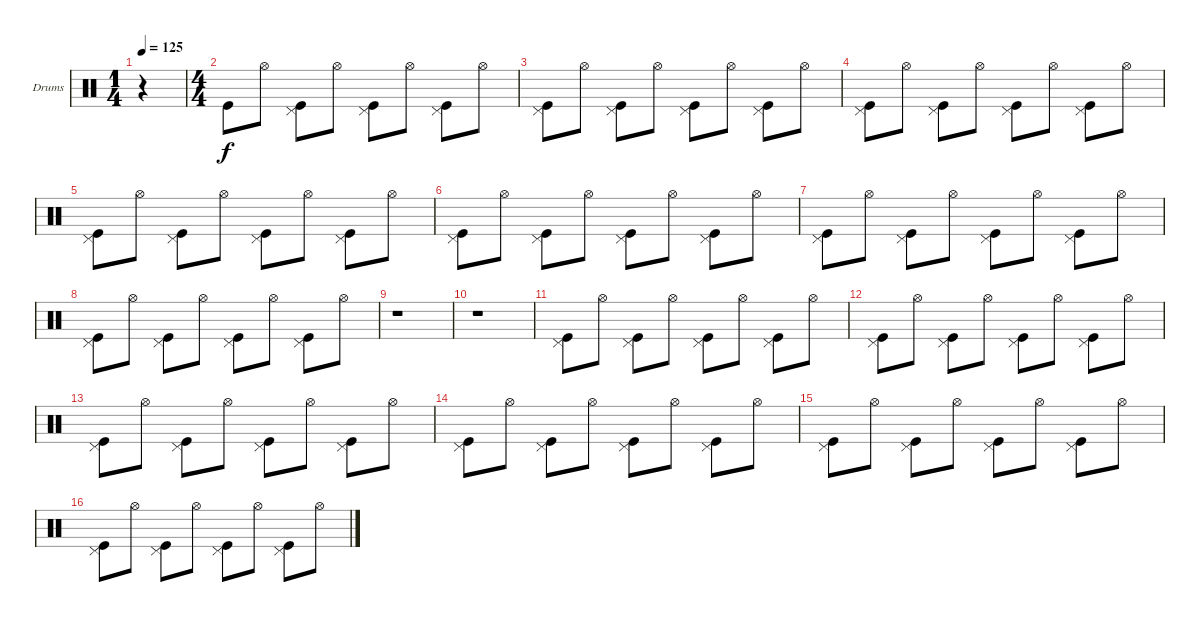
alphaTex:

\bracketExtendMode groupsimilarinstruments
\firstSystemTrackNameOrientation horizontal
\otherSystemsTrackNameOrientation horizontal
\track ("Drumkit" "Drums") {instrument percussion}
\staff {score}
\articulation defaults
\ts (1 4)
\tempo 125
\clef neutral
\ks c
r.4{dy f} |
\ts (4 4)
"Kick (hit)".8 "Hi-Hat (open)".8 ("Pedal Hi-Hat (hit)" "Kick (hit)").8 "Hi-Hat (open)".8 ("Pedal Hi-Hat (hit)" "Kick (hit)").8 "Hi-Hat (open)".8 ("Pedal Hi-Hat (hit)" "Kick (hit)").8 "Hi-Hat (open)".8 |
("Pedal Hi-Hat (hit)" "Kick (hit)").8 "Hi-Hat (open)".8 ("Pedal Hi-Hat (hit)" "Kick (hit)").8 "Hi-Hat (open)".8 ("Pedal Hi-Hat (hit)" "Kick (hit)").8 "Hi-Hat (open)".8 ("Pedal Hi-Hat (hit)" "Kick (hit)").8 "Hi-Hat (open)".8 |
("Pedal Hi-Hat (hit)" "Kick (hit)").8 "Hi-Hat (open)".8 ("Pedal Hi-Hat (hit)" "Kick (hit)").8 "Hi-Hat (open)".8 ("Pedal Hi-Hat (hit)" "Kick (hit)").8 "Hi-Hat (open)".8 ("Pedal Hi-Hat (hit)" "Kick (hit)").8 "Hi-Hat (open)".8 |
("Pedal Hi-Hat (hit)" "Kick (hit)").8 "Hi-Hat (open)".8 ("Pedal Hi-Hat (hit)" "Kick (hit)").8 "Hi-Hat (open)".8 ("Pedal Hi-Hat (hit)" "Kick (hit)").8 "Hi-Hat (open)".8 ("Pedal Hi-Hat (hit)" "Kick (hit)").8 "Hi-Hat (open)".8 |
("Pedal Hi-Hat (hit)" "Kick (hit)").8 "Hi-Hat (open)".8 ("Pedal Hi-Hat (hit)" "Kick (hit)").8 "Hi-Hat (open)".8 ("Pedal Hi-Hat (hit)" "Kick (hit)").8 "Hi-Hat (open)".8 ("Pedal Hi-Hat (hit)" "Kick (hit)").8 "Hi-Hat (open)".8 |
("Pedal Hi-Hat (hit)" "Kick (hit)").8 "Hi-Hat (open)".8 ("Pedal Hi-Hat (hit)" "Kick (hit)").8 "Hi-Hat (open)".8 ("Pedal Hi-Hat (hit)" "Kick (hit)").8 "Hi-Hat (open)".8 ("Pedal Hi-Hat (hit)" "Kick (hit)").8 "Hi-Hat (open)".8 |
("Pedal Hi-Hat (hit)" "Kick (hit)").8 "Hi-Hat (open)".8 ("Pedal Hi-Hat (hit)" "Kick (hit)").8 "Hi-Hat (open)".8 ("Pedal Hi-Hat (hit)" "Kick (hit)").8 "Hi-Hat (open)".8 ("Pedal Hi-Hat (hit)" "Kick (hit)").8 "Hi-Hat (open)".8 |
r.1 |
r.1 |
("Pedal Hi-Hat (hit)" "Kick (hit)").8 "Hi-Hat (open)".8 ("Pedal Hi-Hat (hit)" "Kick (hit)").8 "Hi-Hat (open)".8 ("Pedal Hi-Hat (hit)" "Kick (hit)").8 "Hi-Hat (open)".8 ("Pedal Hi-Hat (hit)" "Kick (hit)").8 "Hi-Hat (open)".8 |
("Pedal Hi-Hat (hit)" "Kick (hit)").8 "Hi-Hat (open)".8 ("Pedal Hi-Hat (hit)" "Kick (hit)").8 "Hi-Hat (open)".8 ("Pedal Hi-Hat (hit)" "Kick (hit)").8 "Hi-Hat (open)".8 ("Pedal Hi-Hat (hit)" "Kick (hit)").8 "Hi-Hat (open)".8 |
("Pedal Hi-Hat (hit)" "Kick (hit)").8 "Hi-Hat (open)".8 ("Pedal Hi-Hat (hit)" "Kick (hit)").8 "Hi-Hat (open)".8 ("Pedal Hi-Hat (hit)" "Kick (hit)").8 "Hi-Hat (open)".8 ("Pedal Hi-Hat (hit)" "Kick (hit)").8 "Hi-Hat (open)".8 |
("Pedal Hi-Hat (hit)" "Kick (hit)").8 "Hi-Hat (open)".8 ("Pedal Hi-Hat (hit)" "Kick (hit)").8 "Hi-Hat (open)".8 ("Pedal Hi-Hat (hit)" "Kick (hit)").8 "Hi-Hat (open)".8 ("Pedal Hi-Hat (hit)" "Kick (hit)").8 "Hi-Hat (open)".8 |
("Pedal Hi-Hat (hit)" "Kick (hit)").8 "Hi-Hat (open)".8 ("Pedal Hi-Hat (hit)" "Kick (hit)").8 "Hi-Hat (open)".8 ("Pedal Hi-Hat (hit)" "Kick (hit)").8 "Hi-Hat (open)".8 ("Pedal Hi-Hat (hit)" "Kick (hit)").8 "Hi-Hat (open)".8 |
("Pedal Hi-Hat (hit)" "Kick (hit)").8 "Hi-Hat (open)".8 ("Pedal Hi-Hat (hit)" "Kick (hit)").8 "Hi-Hat (open)".8 ("Pedal Hi-Hat (hit)" "Kick (hit)").8 "Hi-Hat (open)".8 ("Pedal Hi-Hat (hit)" "Kick (hit)").8 "Hi-Hat (open)".8
